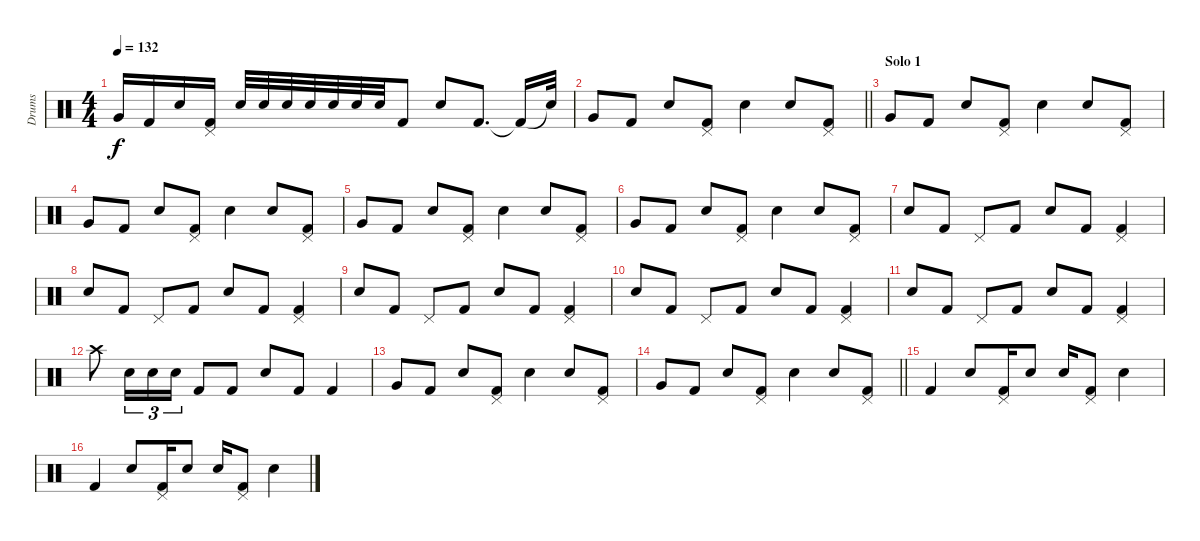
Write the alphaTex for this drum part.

\track ("Drums" "Drums") {instrument percussion}
\staff {score}
\articulation defaults
\ts (4 4)
\tempo 132
\clef neutral
\ks c "Very Low Tom (hit)".16{dy f} "Kick (hit) 2".16 "Snare (hit) 2".16
("Pedal Hi-Hat (hit)" "Kick (hit) 2").16 "Snare (hit) 2".32 "Snare (hit) 2".32 "Snare (hit) 2".32 "Snare (hit) 2".32 "Snare (hit) 2".32 "Snare (hit) 2".32 "Snare (hit) 2".32 "Kick (hit) 2".8 "Snare (hit) 2".8 "Kick (hit) 2".8{d} "Kick (hit) 2"{t}.16 "Snare (hit)"{t}.32 |
\barLineRight lightlight "Very Low Tom (hit)".8 "Kick (hit) 2".8 "Snare (hit) 2".8
("Pedal Hi-Hat (hit)" "Kick (hit) 2").8 "Snare (hit) 2".4 "Snare (hit) 2".8 ("Pedal Hi-Hat (hit)" "Kick (hit) 2").8 |
\section ("" "Solo 1")
"Very Low Tom (hit)".8 "Kick (hit) 2".8 "Snare (hit) 2".8 ("Pedal Hi-Hat (hit)" "Kick (hit) 2").8 "Snare (hit) 2".4 "Snare (hit) 2".8 ("Pedal Hi-Hat (hit)" "Kick (hit) 2").8 |
"Very Low Tom (hit)".8 "Kick (hit) 2".8 "Snare (hit) 2".8 ("Pedal Hi-Hat (hit)" "Kick (hit) 2").8 "Snare (hit) 2".4 "Snare (hit) 2".8 ("Pedal Hi-Hat (hit)" "Kick (hit) 2").8 |
"Very Low Tom (hit)".8 "Kick (hit) 2".8 "Snare (hit) 2".8 ("Pedal Hi-Hat (hit)" "Kick (hit) 2").8 "Snare (hit) 2".4 "Snare (hit) 2".8 ("Pedal Hi-Hat (hit)" "Kick (hit) 2").8 |
"Very Low Tom (hit)".8 "Kick (hit) 2".8 "Snare (hit) 2".8 ("Pedal Hi-Hat (hit)" "Kick (hit) 2").8 "Snare (hit) 2".4 "Snare (hit) 2".8 ("Pedal Hi-Hat (hit)" "Kick (hit) 2").8 |
"Snare (hit) 2".8 "Kick (hit) 2".8 "Pedal Hi-Hat (hit)".8 "Kick (hit) 2".8 "Snare (hit) 2".8 "Kick (hit) 2".8 ("Pedal Hi-Hat (hit)" "Kick (hit) 2").4 |
"Snare (hit) 2".8 "Kick (hit) 2".8 "Pedal Hi-Hat (hit)".8 "Kick (hit) 2".8 "Snare (hit) 2".8 "Kick (hit) 2".8 ("Pedal Hi-Hat (hit)" "Kick (hit) 2").4 |
"Snare (hit) 2".8 "Kick (hit) 2".8 "Pedal Hi-Hat (hit)".8 "Kick (hit) 2".8 "Snare (hit) 2".8 "Kick (hit) 2".8 ("Pedal Hi-Hat (hit)" "Kick (hit) 2").4 |
"Snare (hit) 2".8 "Kick (hit) 2".8 "Pedal Hi-Hat (hit)".8 "Kick (hit) 2".8 "Snare (hit) 2".8 "Kick (hit) 2".8 ("Pedal Hi-Hat (hit)" "Kick (hit) 2").4 |
"Snare (hit) 2".8 "Kick (hit) 2".8 "Pedal Hi-Hat (hit)".8 "Kick (hit) 2".8 "Snare (hit) 2".8 "Kick (hit) 2".8 ("Pedal Hi-Hat (hit)" "Kick (hit) 2").4 |
"Crash high (hit)".8 "Snare (hit) 2".16{tu (3 2)} "Snare (hit) 2".16{tu (3 2)} "Snare (hit) 2".16{tu (3 2)} "Kick (hit) 2".8 "Kick (hit) 2".8 "Snare (hit) 2".8 "Kick (hit) 2".8 "Kick (hit) 2".4 |
"Very Low Tom (hit)".8 "Kick (hit) 2".8 "Snare (hit) 2".8 ("Pedal Hi-Hat (hit)" "Kick (hit) 2").8 "Snare (hit) 2".4 "Snare (hit) 2".8 ("Pedal Hi-Hat (hit)" "Kick (hit) 2").8 |
\barLineRight lightlight "Very Low Tom (hit)".8 "Kick (hit) 2".8 "Snare (hit) 2".8
("Pedal Hi-Hat (hit)" "Kick (hit) 2").8 "Snare (hit) 2".4 "Snare (hit) 2".8 ("Pedal Hi-Hat (hit)" "Kick (hit) 2").8 |
"Kick (hit) 2".4 "Snare (hit) 2".8 ("Pedal Hi-Hat (hit)" "Kick (hit) 2").16 "Snare (hit) 2".8 "Snare (hit) 2".16 ("Pedal Hi-Hat (hit)" "Kick (hit) 2").8 "Snare (hit) 2".4 |
"Kick (hit) 2".4 "Snare (hit) 2".8 ("Pedal Hi-Hat (hit)" "Kick (hit) 2").16 "Snare (hit) 2".8 "Snare (hit) 2".16 ("Pedal Hi-Hat (hit)" "Kick (hit) 2").8 "Snare (hit) 2".4
